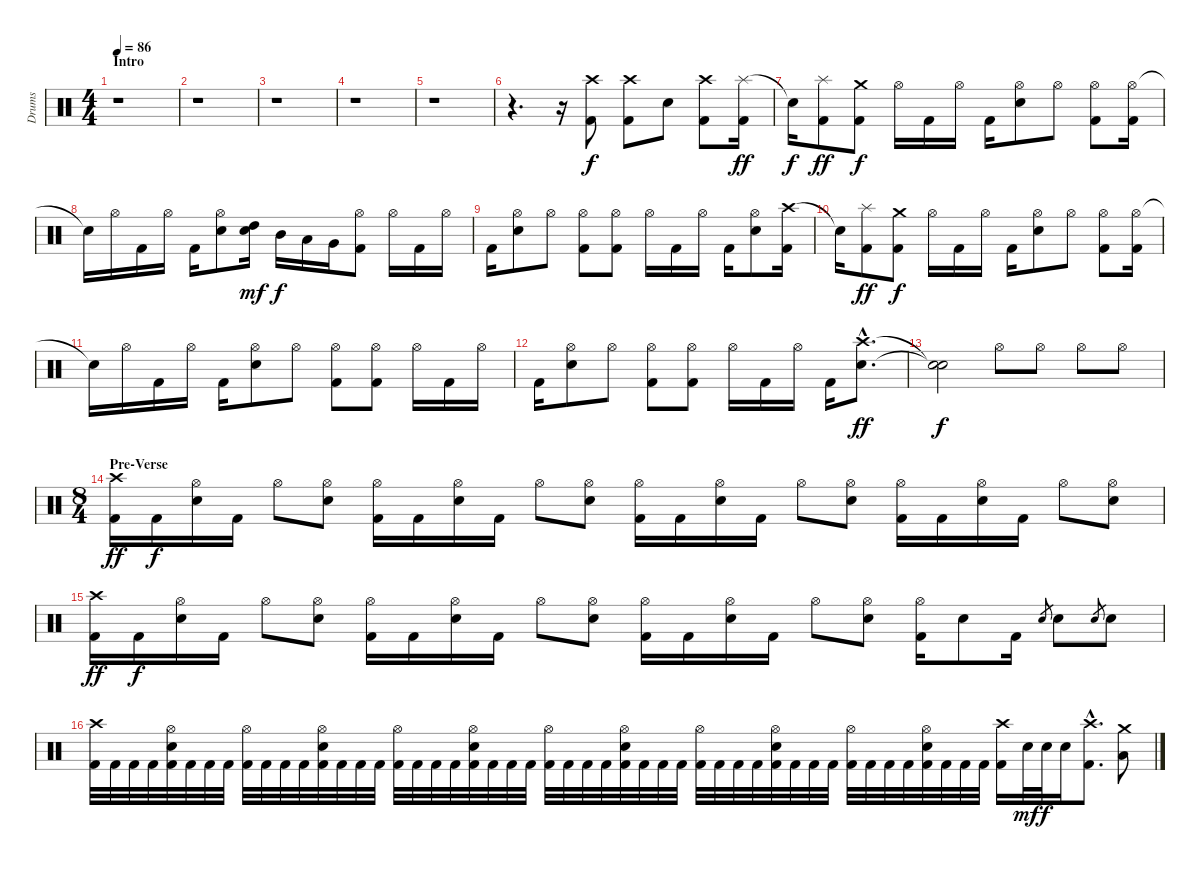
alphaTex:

\track ("Drums" "Drums") {instrument percussion}
\staff {score}
\articulation defaults
\ts (4 4)
\section ("" "Intro")
\tempo 86
\clef neutral
\ks c
r.1{dy f} |
r.1 |
r.1 |
r.1 |
r.1 |
r.4{d} r.16 ("Crash high (hit)" "Kick (hit) 2").8 ("Crash high (hit)" "Kick (hit) 2").8 "Electric Snare (hit)".8 ("Crash high (hit)" "Kick (hit) 2").8 ("Splash (hit)" "Kick (hit) 2").16{dy ff} |
"Snare (hit)"{t}.16{dy f} ("Splash (hit)" "Kick (hit) 2").8{dy ff} ("Crash medium (hit)" "Kick (hit) 2").8{dy f} "Hi-Hat (open)".16 "Kick (hit) 2".16 "Hi-Hat (open)".16 "Kick (hit) 2".16 ("Hi-Hat (open)" "Electric Snare (hit)").8 "Hi-Hat (open)".8 ("Hi-Hat (open)" "Kick (hit) 2").8 ("Hi-Hat (open)" "Kick (hit) 2").16 |
"Snare (hit)"{t}.16 "Hi-Hat (open)".16 "Kick (hit) 2".16 "Hi-Hat (open)".16 "Kick (hit) 2".16 ("Hi-Hat (open)" "Electric Snare (hit)").8 ("High Tom (hit)" "Electric Snare (hit)").16{dy mf} "Mid Tom (hit)".16{dy f} "Low Tom (hit)".16 "Very Low Tom (hit)".16 ("Hi-Hat (open)" "Kick (hit) 2").8 "Hi-Hat (open)".16 "Kick (hit) 2".16 "Hi-Hat (open)".16 |
"Kick (hit) 2".16 ("Hi-Hat (open)" "Electric Snare (hit)").8 "Hi-Hat (open)".8 ("Hi-Hat (open)" "Kick (hit) 2").8 ("Hi-Hat (open)" "Kick (hit) 2").8 "Hi-Hat (open)".16 "Kick (hit) 2".16 "Hi-Hat (open)".16 "Kick (hit) 2".16 ("Hi-Hat (open)" "Electric Snare (hit)").8 ("Crash high (hit)" "Kick (hit) 2").16 |
"Snare (hit)"{t}.16 ("Splash (hit)" "Kick (hit) 2").8{dy ff} ("Crash medium (hit)" "Kick (hit) 2").8{dy f} "Hi-Hat (open)".16 "Kick (hit) 2".16 "Hi-Hat (open)".16 "Kick (hit) 2".16 ("Hi-Hat (open)" "Electric Snare (hit)").8 "Hi-Hat (open)".8 ("Hi-Hat (open)" "Kick (hit) 2").8 ("Hi-Hat (open)" "Kick (hit) 2").16 |
"Snare (hit)"{t}.16 "Hi-Hat (open)".16 "Kick (hit) 2".16 "Hi-Hat (open)".16 "Kick (hit) 2".16 ("Hi-Hat (open)" "Electric Snare (hit)").8 "Hi-Hat (open)".8 ("Hi-Hat (open)" "Kick (hit) 2").8 ("Hi-Hat (open)" "Kick (hit) 2").8 "Hi-Hat (open)".16 "Kick (hit) 2".16 "Hi-Hat (open)".16 |
"Kick (hit) 2".16 ("Hi-Hat (open)" "Electric Snare (hit)").8 "Hi-Hat (open)".8 ("Hi-Hat (open)" "Kick (hit) 2").8 ("Hi-Hat (open)" "Kick (hit) 2").8 "Hi-Hat (open)".16 "Kick (hit) 2".16 "Hi-Hat (open)".16 "Kick (hit) 2".16 ("Crash high (hit)"{hac} "Electric Snare (hit)"{hac}).8{d dy ff} |
("Snare (hit)"{t} "Snare (hit)"{t}).2{dy f} "Hi-Hat (open)".8 "Hi-Hat (open)".8 "Hi-Hat (open)".8 "Hi-Hat (open)".8 |
\ts (8 4)
\section ("" "Pre-Verse")
("Crash high (hit)" "Kick (hit) 2").16{dy ff} "Kick (hit) 2".16{dy f} ("Hi-Hat (open)" "Electric Snare (hit)").16 "Kick (hit) 2".16 "Hi-Hat (open)".8 ("Hi-Hat (open)" "Electric Snare (hit)").8 ("Hi-Hat (open)" "Kick (hit) 2").16 "Kick (hit) 2".16 ("Hi-Hat (open)" "Electric Snare (hit)").16 "Kick (hit) 2".16 "Hi-Hat (open)".8 ("Hi-Hat (open)" "Electric Snare (hit)").8 ("Hi-Hat (open)" "Kick (hit) 2").16 "Kick (hit) 2".16 ("Hi-Hat (open)" "Electric Snare (hit)").16 "Kick (hit) 2".16 "Hi-Hat (open)".8 ("Hi-Hat (open)" "Electric Snare (hit)").8 ("Hi-Hat (open)" "Kick (hit) 2").16 "Kick (hit) 2".16 ("Hi-Hat (open)" "Electric Snare (hit)").16 "Kick (hit) 2".16 "Hi-Hat (open)".8 ("Hi-Hat (open)" "Electric Snare (hit)").8 |
("Crash high (hit)" "Kick (hit) 2").16{dy ff} "Kick (hit) 2".16{dy f} ("Hi-Hat (open)" "Electric Snare (hit)").16 "Kick (hit) 2".16 "Hi-Hat (open)".8 ("Hi-Hat (open)" "Electric Snare (hit)").8 ("Hi-Hat (open)" "Kick (hit) 2").16 "Kick (hit) 2".16 ("Hi-Hat (open)" "Electric Snare (hit)").16 "Kick (hit) 2".16 "Hi-Hat (open)".8 ("Hi-Hat (open)" "Electric Snare (hit)").8 ("Hi-Hat (open)" "Kick (hit) 2").16 "Kick (hit) 2".16 ("Hi-Hat (open)" "Electric Snare (hit)").16 "Kick (hit) 2".16 "Hi-Hat (open)".8 ("Hi-Hat (open)" "Electric Snare (hit)").8 ("Hi-Hat (open)" "Kick (hit) 2").16 "Electric Snare (hit)".8 "Kick (hit) 2".16 "Electric Snare (hit)".8{gr} "Electric Snare (hit)".8 "Electric Snare (hit)".8{gr} "Electric Snare (hit)".8 |
("Crash high (hit)" "Kick (hit) 2").32 "Kick (hit) 2".32 "Kick (hit) 2".32 "Kick (hit) 2".32 ("Hi-Hat (open)" "Electric Snare (hit)" "Kick (hit) 2").32 "Kick (hit) 2".32 "Kick (hit) 2".32 "Kick (hit) 2".32 ("Hi-Hat (open)" "Kick (hit) 2").32 "Kick (hit) 2".32 "Kick (hit) 2".32 "Kick (hit) 2".32 ("Hi-Hat (open)" "Electric Snare (hit)" "Kick (hit) 2").32 "Kick (hit) 2".32 "Kick (hit) 2".32 "Kick (hit) 2".32 ("Hi-Hat (open)" "Kick (hit) 2").32 "Kick (hit) 2".32 "Kick (hit) 2".32 "Kick (hit) 2".32 ("Hi-Hat (open)" "Electric Snare (hit)" "Kick (hit) 2").32 "Kick (hit) 2".32 "Kick (hit) 2".32 "Kick (hit) 2".32 ("Hi-Hat (open)" "Kick (hit) 2").32 "Kick (hit) 2".32 "Kick (hit) 2".32 "Kick (hit) 2".32 ("Hi-Hat (open)" "Electric Snare (hit)" "Kick (hit) 2").32 "Kick (hit) 2".32 "Kick (hit) 2".32 "Kick (hit) 2".32 ("Hi-Hat (open)" "Kick (hit) 2").32 "Kick (hit) 2".32 "Kick (hit) 2".32 "Kick (hit) 2".32 ("Hi-Hat (open)" "Electric Snare (hit)" "Kick (hit) 2").32 "Kick (hit) 2".32 "Kick (hit) 2".32 "Kick (hit) 2".32 ("Hi-Hat (open)" "Kick (hit) 2").32 "Kick (hit) 2".32 "Kick (hit) 2".32 "Kick (hit) 2".32 ("Hi-Hat (open)" "Electric Snare (hit)" "Kick (hit) 2").32 "Kick (hit) 2".32 "Kick (hit) 2".32 "Kick (hit) 2".32 ("Crash high (hit)" "Kick (hit) 2").16 "Electric Snare (hit)".32{dy mf} "Electric Snare (hit)".32{dy f} "Electric Snare (hit)".16 ("Crash high (hit)"{hac} "Kick (hit) 2"{hac}).8{d} ("Crash medium (hit)" "Low Tom (hit)").8
